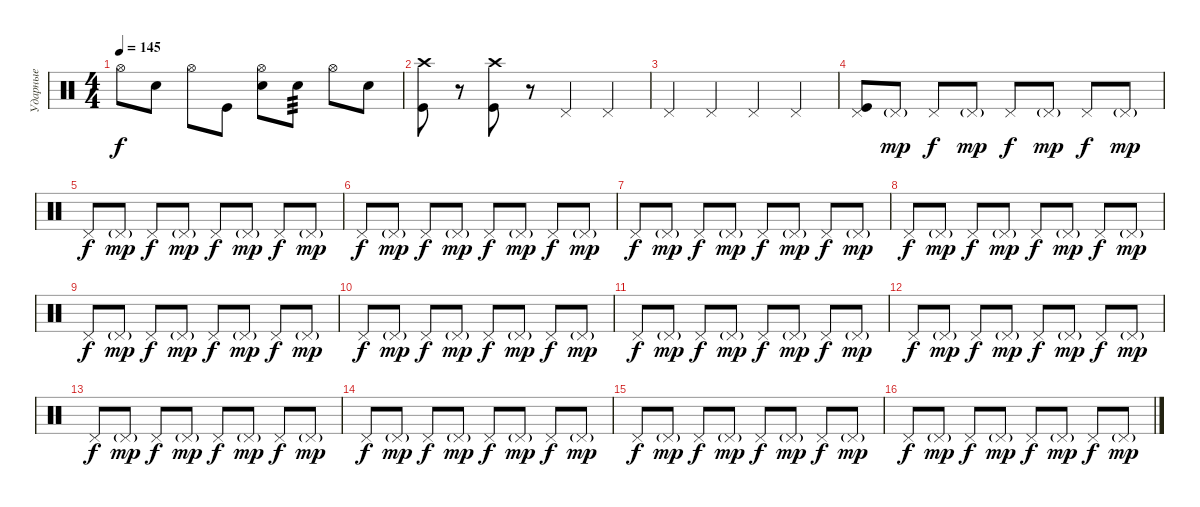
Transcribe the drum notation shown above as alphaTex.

\track ("Ударные" "Ударные") {instrument percussion}
\staff {score}
\articulation defaults
\ts (4 4)
\tempo 145
\clef neutral
\ks c "Hi-Hat (open)".8{dy f} "Electric Snare (hit)".8 "Hi-Hat (open)".8 "Kick (hit)".8
("Hi-Hat (open)" "Electric Snare (hit)").8 "Electric Snare (hit)".8{tp 3} "Hi-Hat (open)".8 "Electric Snare (hit)".8 |
("Crash high (hit)" "Kick (hit)").8 r.8 ("Crash high (hit)" "Kick (hit)").8 r.8 "Pedal Hi-Hat (hit)".4 "Pedal Hi-Hat (hit)".4 |
"Pedal Hi-Hat (hit)".4 "Pedal Hi-Hat (hit)".4 "Pedal Hi-Hat (hit)".4 "Pedal Hi-Hat (hit)".4 |
("Pedal Hi-Hat (hit)" "Kick (hit)").8{volume 10 balance 13} "Pedal Hi-Hat (hit)"{g}.8{dy mp} "Pedal Hi-Hat (hit)".8{dy f} "Pedal Hi-Hat (hit)"{g}.8{dy mp} "Pedal Hi-Hat (hit)".8{dy f} "Pedal Hi-Hat (hit)"{g}.8{dy mp} "Pedal Hi-Hat (hit)".8{dy f} "Pedal Hi-Hat (hit)"{g}.8{dy mp} |
"Pedal Hi-Hat (hit)".8{dy f} "Pedal Hi-Hat (hit)"{g}.8{dy mp} "Pedal Hi-Hat (hit)".8{dy f} "Pedal Hi-Hat (hit)"{g}.8{dy mp} "Pedal Hi-Hat (hit)".8{dy f} "Pedal Hi-Hat (hit)"{g}.8{dy mp} "Pedal Hi-Hat (hit)".8{dy f} "Pedal Hi-Hat (hit)"{g}.8{dy mp} |
"Pedal Hi-Hat (hit)".8{dy f} "Pedal Hi-Hat (hit)"{g}.8{dy mp} "Pedal Hi-Hat (hit)".8{dy f} "Pedal Hi-Hat (hit)"{g}.8{dy mp} "Pedal Hi-Hat (hit)".8{dy f} "Pedal Hi-Hat (hit)"{g}.8{dy mp} "Pedal Hi-Hat (hit)".8{dy f} "Pedal Hi-Hat (hit)"{g}.8{dy mp} |
"Pedal Hi-Hat (hit)".8{dy f} "Pedal Hi-Hat (hit)"{g}.8{dy mp} "Pedal Hi-Hat (hit)".8{dy f} "Pedal Hi-Hat (hit)"{g}.8{dy mp} "Pedal Hi-Hat (hit)".8{dy f} "Pedal Hi-Hat (hit)"{g}.8{dy mp} "Pedal Hi-Hat (hit)".8{dy f} "Pedal Hi-Hat (hit)"{g}.8{dy mp} |
"Pedal Hi-Hat (hit)".8{dy f} "Pedal Hi-Hat (hit)"{g}.8{dy mp} "Pedal Hi-Hat (hit)".8{dy f} "Pedal Hi-Hat (hit)"{g}.8{dy mp} "Pedal Hi-Hat (hit)".8{dy f} "Pedal Hi-Hat (hit)"{g}.8{dy mp} "Pedal Hi-Hat (hit)".8{dy f} "Pedal Hi-Hat (hit)"{g}.8{dy mp} |
"Pedal Hi-Hat (hit)".8{dy f} "Pedal Hi-Hat (hit)"{g}.8{dy mp} "Pedal Hi-Hat (hit)".8{dy f} "Pedal Hi-Hat (hit)"{g}.8{dy mp} "Pedal Hi-Hat (hit)".8{dy f} "Pedal Hi-Hat (hit)"{g}.8{dy mp} "Pedal Hi-Hat (hit)".8{dy f} "Pedal Hi-Hat (hit)"{g}.8{dy mp} |
"Pedal Hi-Hat (hit)".8{dy f} "Pedal Hi-Hat (hit)"{g}.8{dy mp} "Pedal Hi-Hat (hit)".8{dy f} "Pedal Hi-Hat (hit)"{g}.8{dy mp} "Pedal Hi-Hat (hit)".8{dy f} "Pedal Hi-Hat (hit)"{g}.8{dy mp} "Pedal Hi-Hat (hit)".8{dy f} "Pedal Hi-Hat (hit)"{g}.8{dy mp} |
"Pedal Hi-Hat (hit)".8{dy f} "Pedal Hi-Hat (hit)"{g}.8{dy mp} "Pedal Hi-Hat (hit)".8{dy f} "Pedal Hi-Hat (hit)"{g}.8{dy mp} "Pedal Hi-Hat (hit)".8{dy f} "Pedal Hi-Hat (hit)"{g}.8{dy mp} "Pedal Hi-Hat (hit)".8{dy f} "Pedal Hi-Hat (hit)"{g}.8{dy mp} |
"Pedal Hi-Hat (hit)".8{dy f} "Pedal Hi-Hat (hit)"{g}.8{dy mp} "Pedal Hi-Hat (hit)".8{dy f} "Pedal Hi-Hat (hit)"{g}.8{dy mp} "Pedal Hi-Hat (hit)".8{dy f} "Pedal Hi-Hat (hit)"{g}.8{dy mp} "Pedal Hi-Hat (hit)".8{dy f} "Pedal Hi-Hat (hit)"{g}.8{dy mp} |
"Pedal Hi-Hat (hit)".8{dy f} "Pedal Hi-Hat (hit)"{g}.8{dy mp} "Pedal Hi-Hat (hit)".8{dy f} "Pedal Hi-Hat (hit)"{g}.8{dy mp} "Pedal Hi-Hat (hit)".8{dy f} "Pedal Hi-Hat (hit)"{g}.8{dy mp} "Pedal Hi-Hat (hit)".8{dy f} "Pedal Hi-Hat (hit)"{g}.8{dy mp} |
"Pedal Hi-Hat (hit)".8{dy f} "Pedal Hi-Hat (hit)"{g}.8{dy mp} "Pedal Hi-Hat (hit)".8{dy f} "Pedal Hi-Hat (hit)"{g}.8{dy mp} "Pedal Hi-Hat (hit)".8{dy f} "Pedal Hi-Hat (hit)"{g}.8{dy mp} "Pedal Hi-Hat (hit)".8{dy f} "Pedal Hi-Hat (hit)"{g}.8{dy mp} |
"Pedal Hi-Hat (hit)".8{dy f} "Pedal Hi-Hat (hit)"{g}.8{dy mp} "Pedal Hi-Hat (hit)".8{dy f} "Pedal Hi-Hat (hit)"{g}.8{dy mp} "Pedal Hi-Hat (hit)".8{dy f} "Pedal Hi-Hat (hit)"{g}.8{dy mp} "Pedal Hi-Hat (hit)".8{dy f} "Pedal Hi-Hat (hit)"{g}.8{dy mp} |
"Pedal Hi-Hat (hit)".8{dy f} "Pedal Hi-Hat (hit)"{g}.8{dy mp} "Pedal Hi-Hat (hit)".8{dy f} "Pedal Hi-Hat (hit)"{g}.8{dy mp} "Pedal Hi-Hat (hit)".8{dy f} "Pedal Hi-Hat (hit)"{g}.8{dy mp} "Pedal Hi-Hat (hit)".8{dy f} "Pedal Hi-Hat (hit)"{g}.8{dy mp}
